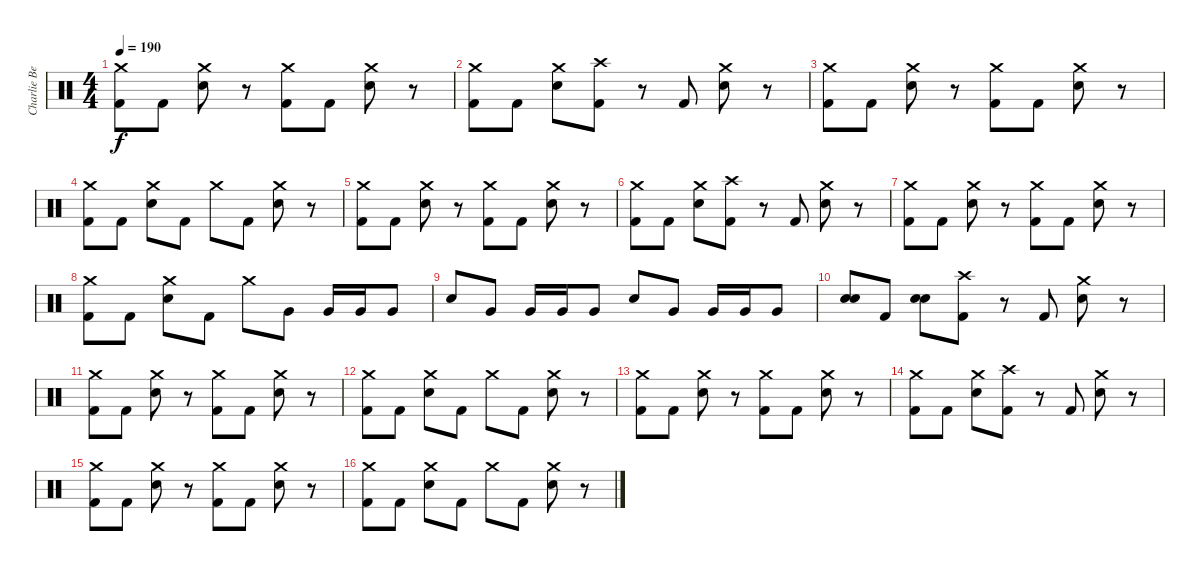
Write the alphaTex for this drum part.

\track ("Charlie Benante" "Charlie Be") {instrument percussion}
\staff {score}
\articulation defaults
\ts (4 4)
\tempo 190
\clef neutral
\ks c
("Kick (hit) 2" "Crash medium (hit)").8{dy f} "Kick (hit) 2".8 ("Snare (hit) 2" "Crash medium (hit)").8 r.8 ("Kick (hit) 2" "Crash medium (hit)").8 "Kick (hit) 2".8 ("Snare (hit) 2" "Crash medium (hit)").8 r.8 |
("Kick (hit) 2" "Crash medium (hit)").8 "Kick (hit) 2".8 ("Snare (hit) 2" "Crash medium (hit)").8 ("Kick (hit) 2" "Crash high (hit)").8 r.8 "Kick (hit) 2".8 ("Snare (hit) 2" "Crash medium (hit)").8 r.8 |
("Kick (hit) 2" "Crash medium (hit)").8 "Kick (hit) 2".8 ("Snare (hit) 2" "Crash medium (hit)").8 r.8 ("Kick (hit) 2" "Crash medium (hit)").8 "Kick (hit) 2".8 ("Snare (hit) 2" "Crash medium (hit)").8 r.8 |
("Kick (hit) 2" "Crash medium (hit)").8 "Kick (hit) 2".8 ("Snare (hit) 2" "Crash medium (hit)").8 "Kick (hit) 2".8 "Crash medium (hit)".8 "Kick (hit) 2".8 ("Snare (hit) 2" "Crash medium (hit)").8 r.8 |
("Kick (hit) 2" "Crash medium (hit)").8 "Kick (hit) 2".8 ("Snare (hit) 2" "Crash medium (hit)").8 r.8 ("Kick (hit) 2" "Crash medium (hit)").8 "Kick (hit) 2".8 ("Snare (hit) 2" "Crash medium (hit)").8 r.8 |
("Kick (hit) 2" "Crash medium (hit)").8 "Kick (hit) 2".8 ("Snare (hit) 2" "Crash medium (hit)").8 ("Kick (hit) 2" "Crash high (hit)").8 r.8 "Kick (hit) 2".8 ("Snare (hit) 2" "Crash medium (hit)").8 r.8 |
("Kick (hit) 2" "Crash medium (hit)").8 "Kick (hit) 2".8 ("Snare (hit) 2" "Crash medium (hit)").8 r.8 ("Kick (hit) 2" "Crash medium (hit)").8 "Kick (hit) 2".8 ("Snare (hit) 2" "Crash medium (hit)").8 r.8 |
("Kick (hit) 2" "Crash medium (hit)").8 "Kick (hit) 2".8 ("Snare (hit) 2" "Crash medium (hit)").8 "Kick (hit) 2".8 "Crash medium (hit)".8 "Very Low Tom (hit)".8 "Very Low Tom (hit)".16 "Very Low Tom (hit)".16 "Very Low Tom (hit)".8 |
"Snare (hit) 2".8 "Very Low Tom (hit)".8 "Very Low Tom (hit)".16 "Very Low Tom (hit)".16 "Very Low Tom (hit)".8 "Snare (hit) 2".8 "Very Low Tom (hit)".8 "Very Low Tom (hit)".16 "Very Low Tom (hit)".16 "Very Low Tom (hit)".8 |
("Snare (hit) 2" "Snare (hit) 2").8{bd 120} "Kick (hit) 2".8 ("Snare (hit) 2" "Snare (hit) 2").8{bd 120} ("Kick (hit) 2" "Crash high (hit)").8 r.8 "Kick (hit) 2".8 ("Snare (hit) 2" "Crash medium (hit)").8 r.8 |
("Kick (hit) 2" "Crash medium (hit)").8 "Kick (hit) 2".8 ("Snare (hit) 2" "Crash medium (hit)").8 r.8 ("Kick (hit) 2" "Crash medium (hit)").8 "Kick (hit) 2".8 ("Snare (hit) 2" "Crash medium (hit)").8 r.8 |
("Kick (hit) 2" "Crash medium (hit)").8 "Kick (hit) 2".8 ("Snare (hit) 2" "Crash medium (hit)").8 "Kick (hit) 2".8 "Crash medium (hit)".8 "Kick (hit) 2".8 ("Snare (hit) 2" "Crash medium (hit)").8 r.8 |
("Kick (hit) 2" "Crash medium (hit)").8 "Kick (hit) 2".8 ("Snare (hit) 2" "Crash medium (hit)").8 r.8 ("Kick (hit) 2" "Crash medium (hit)").8 "Kick (hit) 2".8 ("Snare (hit) 2" "Crash medium (hit)").8 r.8 |
("Kick (hit) 2" "Crash medium (hit)").8 "Kick (hit) 2".8 ("Snare (hit) 2" "Crash medium (hit)").8 ("Kick (hit) 2" "Crash high (hit)").8 r.8 "Kick (hit) 2".8 ("Snare (hit) 2" "Crash medium (hit)").8 r.8 |
("Kick (hit) 2" "Crash medium (hit)").8 "Kick (hit) 2".8 ("Snare (hit) 2" "Crash medium (hit)").8 r.8 ("Kick (hit) 2" "Crash medium (hit)").8 "Kick (hit) 2".8 ("Snare (hit) 2" "Crash medium (hit)").8 r.8 |
("Kick (hit) 2" "Crash medium (hit)").8 "Kick (hit) 2".8 ("Snare (hit) 2" "Crash medium (hit)").8 "Kick (hit) 2".8 "Crash medium (hit)".8 "Kick (hit) 2".8 ("Snare (hit) 2" "Crash medium (hit)").8 r.8
